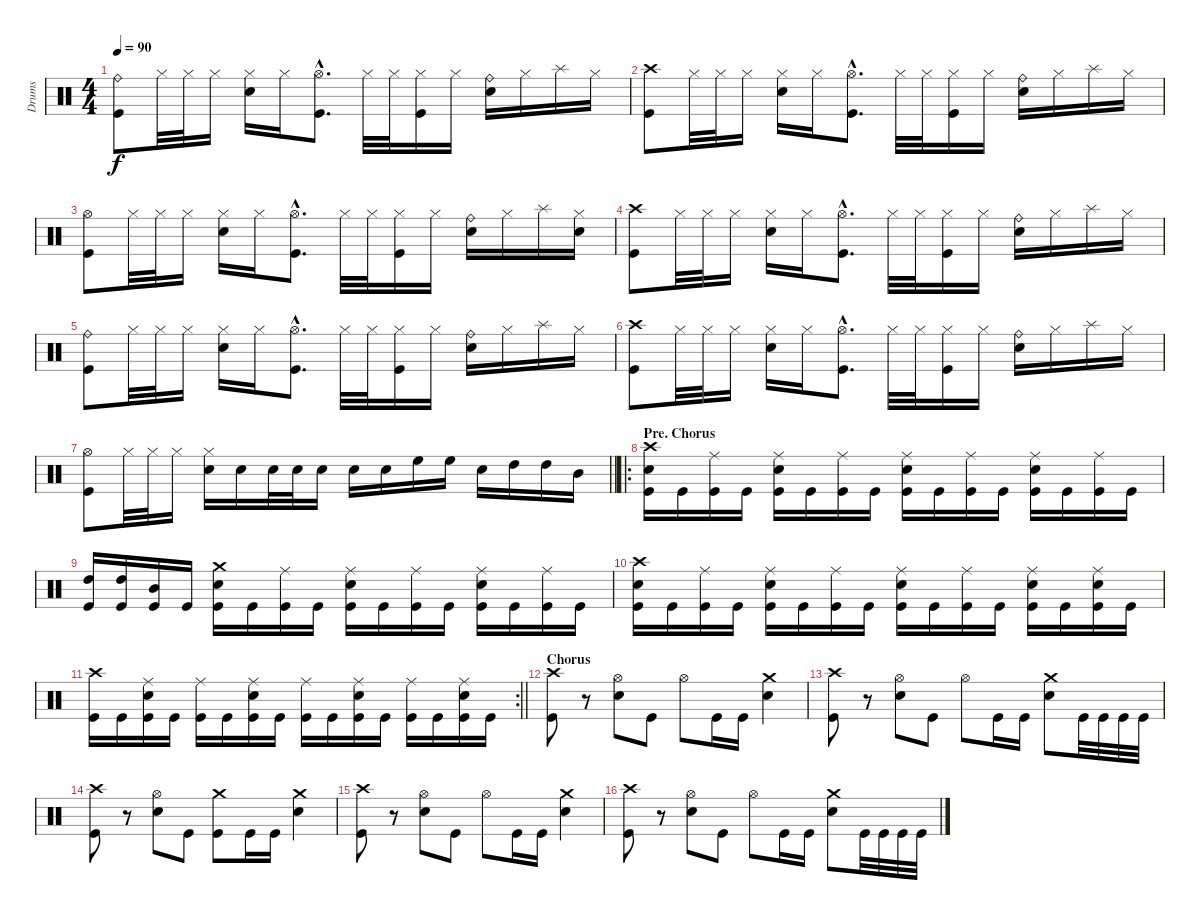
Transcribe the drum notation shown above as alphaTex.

\track ("Drums" "Drums") {instrument percussion}
\staff {score}
\articulation defaults
\ts (4 4)
\tempo 90
\clef neutral
\ks c
("Ride (bell)" "Kick (hit)").8{dy f} "Hi-Hat (closed)".32 "Hi-Hat (closed)".32 "Hi-Hat (closed)".16 ("Hi-Hat (closed)" "Electric Snare (hit)").16 "Hi-Hat (closed)".16 ("Hi-Hat (open)"{hac} "Kick (hit)"{hac}).8{d} "Hi-Hat (closed)".32 "Hi-Hat (closed)".32 ("Hi-Hat (closed)" "Kick (hit)").16 "Hi-Hat (closed)".16 ("Ride (bell)" "Electric Snare (hit)").16 "Hi-Hat (closed)".16 "Splash (hit)".16 "Hi-Hat (closed)".16 |
("Crash high (hit)" "Kick (hit)").8 "Hi-Hat (closed)".32 "Hi-Hat (closed)".32 "Hi-Hat (closed)".16 ("Hi-Hat (closed)" "Electric Snare (hit)").16 "Hi-Hat (closed)".16 ("Hi-Hat (open)"{hac} "Kick (hit)"{hac}).8{d} "Hi-Hat (closed)".32 "Hi-Hat (closed)".32 ("Hi-Hat (closed)" "Kick (hit)").16 "Hi-Hat (closed)".16 ("Ride (bell)" "Electric Snare (hit)").16 "Hi-Hat (closed)".16 "Splash (hit)".16 "Hi-Hat (closed)".16 |
("Hi-Hat (open)" "Kick (hit)").8 "Hi-Hat (closed)".32 "Hi-Hat (closed)".32 "Hi-Hat (closed)".16 ("Hi-Hat (closed)" "Electric Snare (hit)").16 "Hi-Hat (closed)".16 ("Hi-Hat (open)"{hac} "Kick (hit)"{hac}).8{d} "Hi-Hat (closed)".32 "Hi-Hat (closed)".32 ("Hi-Hat (closed)" "Kick (hit)").16 "Hi-Hat (closed)".16 ("Ride (bell)" "Electric Snare (hit)").16 "Hi-Hat (closed)".16 "Splash (hit)".16 ("Hi-Hat (closed)" "Electric Snare (hit)").16 |
("Crash high (hit)" "Kick (hit)").8 "Hi-Hat (closed)".32 "Hi-Hat (closed)".32 "Hi-Hat (closed)".16 ("Hi-Hat (closed)" "Electric Snare (hit)").16 "Hi-Hat (closed)".16 ("Hi-Hat (open)"{hac} "Kick (hit)"{hac}).8{d} "Hi-Hat (closed)".32 "Hi-Hat (closed)".32 ("Hi-Hat (closed)" "Kick (hit)").16 "Hi-Hat (closed)".16 ("Ride (bell)" "Electric Snare (hit)").16 "Hi-Hat (closed)".16 "Splash (hit)".16 "Hi-Hat (closed)".16 |
("Ride (bell)" "Kick (hit)").8 "Hi-Hat (closed)".32 "Hi-Hat (closed)".32 "Hi-Hat (closed)".16 ("Hi-Hat (closed)" "Electric Snare (hit)").16 "Hi-Hat (closed)".16 ("Hi-Hat (open)"{hac} "Kick (hit)"{hac}).8{d} "Hi-Hat (closed)".32 "Hi-Hat (closed)".32 ("Hi-Hat (closed)" "Kick (hit)").16 "Hi-Hat (closed)".16 ("Ride (bell)" "Electric Snare (hit)").16 "Hi-Hat (closed)".16 "Splash (hit)".16 "Hi-Hat (closed)".16 |
("Crash high (hit)" "Kick (hit)").8 "Hi-Hat (closed)".32 "Hi-Hat (closed)".32 "Hi-Hat (closed)".16 ("Hi-Hat (closed)" "Electric Snare (hit)").16 "Hi-Hat (closed)".16 ("Hi-Hat (open)"{hac} "Kick (hit)"{hac}).8{d} "Hi-Hat (closed)".32 "Hi-Hat (closed)".32 ("Hi-Hat (closed)" "Kick (hit)").16 "Hi-Hat (closed)".16 ("Ride (bell)" "Electric Snare (hit)").16 "Hi-Hat (closed)".16 "Splash (hit)".16 "Hi-Hat (closed)".16 |
\barLineRight lightlight
("Hi-Hat (open)" "Kick (hit)").8 "Hi-Hat (closed)".32 "Hi-Hat (closed)".32 "Hi-Hat (closed)".16 ("Hi-Hat (closed)" "Electric Snare (hit)").16 "Electric Snare (hit)".16 "Electric Snare (hit)".32 "Electric Snare (hit)".32 "Electric Snare (hit)".16 "Electric Snare (hit)".16 "Electric Snare (hit)".16 "High Floor Tom (hit)".16 "High Floor Tom (hit)".16 "Electric Snare (hit)".16 "High Tom (hit)".16 "High Tom (hit)".16 "Mid Tom (hit)".16 |
\ro
\section ("" "Pre. Chorus")
("Crash high (hit)" "Electric Snare (hit)" "Kick (hit)").16 "Kick (hit)".16 ("Ride (middle)" "Kick (hit)").16 "Kick (hit)".16 ("Ride (middle)" "Electric Snare (hit)" "Kick (hit)").16 "Kick (hit)".16 ("Ride (middle)" "Kick (hit)").16 "Kick (hit)".16 ("Ride (middle)" "Electric Snare (hit)" "Kick (hit)").16 "Kick (hit)".16 ("Ride (middle)" "Kick (hit)").16 "Kick (hit)".16 ("Ride (middle)" "Electric Snare (hit)" "Kick (hit)").16 "Kick (hit)".16 ("Ride (middle)" "Kick (hit)").16 "Kick (hit)".16 |
("High Tom (hit)" "Kick (hit)").16 ("High Tom (hit)" "Kick (hit)").16 ("Mid Tom (hit)" "Kick (hit)").16 "Kick (hit)".16 ("Crash medium (hit)" "Electric Snare (hit)" "Kick (hit)").16 "Kick (hit)".16 ("Ride (middle)" "Kick (hit)").16 "Kick (hit)".16 ("Ride (middle)" "Electric Snare (hit)" "Kick (hit)").16 "Kick (hit)".16 ("Ride (middle)" "Kick (hit)").16 "Kick (hit)".16 ("Ride (middle)" "Electric Snare (hit)" "Kick (hit)").16 "Kick (hit)".16 ("Ride (middle)" "Kick (hit)").16 "Kick (hit)".16 |
("Crash high (hit)" "Electric Snare (hit)" "Kick (hit)").16 "Kick (hit)".16 ("Ride (middle)" "Kick (hit)").16 "Kick (hit)".16 ("Ride (middle)" "Electric Snare (hit)" "Kick (hit)").16 "Kick (hit)".16 ("Ride (middle)" "Kick (hit)").16 "Kick (hit)".16 ("Ride (middle)" "Electric Snare (hit)" "Kick (hit)").16 "Kick (hit)".16 ("Ride (middle)" "Kick (hit)").16 "Kick (hit)".16 ("Ride (middle)" "Electric Snare (hit)" "Kick (hit)").16 "Kick (hit)".16 ("Ride (middle)" "Electric Snare (hit)" "Kick (hit)").16 "Kick (hit)".16 |
\rc 2
\barLineRight lightlight
("Crash high (hit)" "Kick (hit)").16 "Kick (hit)".16 ("Ride (middle)" "Electric Snare (hit)" "Kick (hit)").16 "Kick (hit)".16 ("Ride (middle)" "Kick (hit)").16 "Kick (hit)".16 ("Ride (middle)" "Electric Snare (hit)" "Kick (hit)").16 "Kick (hit)".16 ("Ride (middle)" "Kick (hit)").16 "Kick (hit)".16 ("Ride (middle)" "Electric Snare (hit)" "Kick (hit)").16 "Kick (hit)".16 ("Ride (middle)" "Kick (hit)").16 "Kick (hit)".16 ("Ride (middle)" "Electric Snare (hit)" "Kick (hit)").16 "Kick (hit)".16 |
\section ("" "Chorus")
("Crash high (hit)" "Kick (hit)").8 r.8 ("Hi-Hat (open)" "Electric Snare (hit)").8 "Kick (hit)".8 "Hi-Hat (open)".8 "Kick (hit)".16 "Kick (hit)".16 ("Crash medium (hit)" "Electric Snare (hit)").4 |
("Crash high (hit)" "Kick (hit)").8 r.8 ("Hi-Hat (open)" "Electric Snare (hit)").8 "Kick (hit)".8 "Hi-Hat (open)".8 "Kick (hit)".16 "Kick (hit)".16 ("Crash medium (hit)" "Electric Snare (hit)").8 "Kick (hit)".32 "Kick (hit)".32 "Kick (hit)".32 "Kick (hit)".32 |
("Crash high (hit)" "Kick (hit)").8 r.8 ("Hi-Hat (open)" "Electric Snare (hit)").8 "Kick (hit)".8 ("Crash medium (hit)" "Kick (hit)").8 "Kick (hit)".16 "Kick (hit)".16 ("Crash medium (hit)" "Electric Snare (hit)").4 |
("Crash high (hit)" "Kick (hit)").8 r.8 ("Hi-Hat (open)" "Electric Snare (hit)").8 "Kick (hit)".8 "Hi-Hat (open)".8 "Kick (hit)".16 "Kick (hit)".16 ("Crash medium (hit)" "Electric Snare (hit)").4 |
("Crash high (hit)" "Kick (hit)").8 r.8 ("Hi-Hat (open)" "Electric Snare (hit)").8 "Kick (hit)".8 "Hi-Hat (open)".8 "Kick (hit)".16 "Kick (hit)".16 ("Crash medium (hit)" "Electric Snare (hit)").8 "Kick (hit)".32 "Kick (hit)".32 "Kick (hit)".32 "Kick (hit)".32
